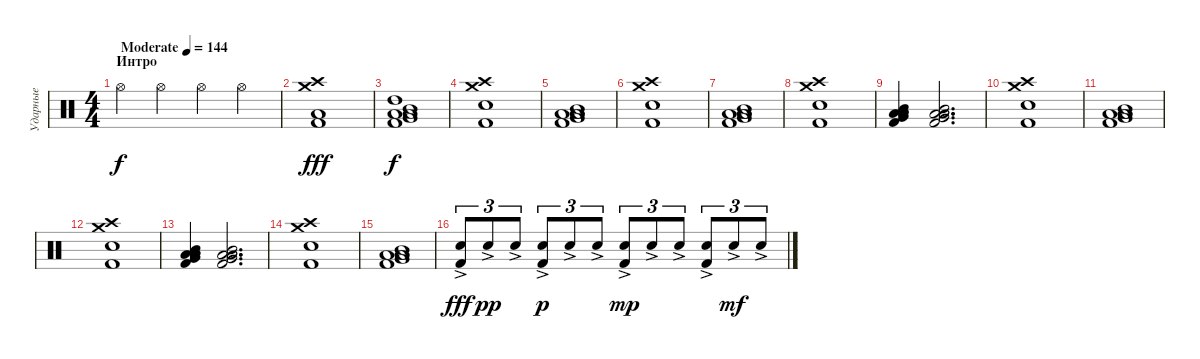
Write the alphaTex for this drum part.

\track ("Ударные" "Ударные") {instrument percussion}
\staff {score}
\articulation defaults
\ts (4 4)
\section ("" "Интро")
\tempo (144 "Moderate")
\clef neutral
\ks c "Hi-Hat (open)".4{dy f} "Hi-Hat (open)".4 "Hi-Hat (open)".4 "Hi-Hat (open)".4
|
("Crash high (hit)" "Kick (hit) 2" "Low Floor Tom (hit)" "Crash medium (hit)").1{dy fff volume 10} |
("Low Floor Tom (hit)" "Very Low Tom (hit)" "Low Tom (hit)" "Kick (hit) 2" "Mid Tom (hit)" "High Tom (hit)").1{dy f} |
("Crash high (hit)" "Crash medium (hit)" "Snare (hit) 2" "Kick (hit) 2").1 |
("Low Floor Tom (hit)" "Very Low Tom (hit)" "Low Tom (hit)" "Kick (hit) 2" "Low Tom (hit)" "Mid Tom (hit)").1 |
("Crash high (hit)" "Crash medium (hit)" "Snare (hit) 2" "Kick (hit) 2").1 |
("Low Floor Tom (hit)" "Very Low Tom (hit)" "Low Tom (hit)" "Kick (hit) 2" "Low Tom (hit)" "Mid Tom (hit)").1 |
("Crash high (hit)" "Crash medium (hit)" "Snare (hit) 2" "Kick (hit) 2").1 |
("Low Floor Tom (hit)" "Very Low Tom (hit)" "Low Tom (hit)" "Kick (hit) 2" "Low Tom (hit)" "Mid Tom (hit)").4 ("Low Floor Tom (hit)" "Very Low Tom (hit)" "Low Tom (hit)" "Kick (hit) 2" "Low Tom (hit)" "Mid Tom (hit)").2{d} |
("Crash high (hit)" "Crash medium (hit)" "Snare (hit) 2" "Kick (hit) 2").1 |
("Low Floor Tom (hit)" "Very Low Tom (hit)" "Low Tom (hit)" "Kick (hit) 2" "Low Tom (hit)" "Mid Tom (hit)").1 |
("Crash high (hit)" "Crash medium (hit)" "Snare (hit) 2" "Kick (hit) 2").1 |
("Low Floor Tom (hit)" "Very Low Tom (hit)" "Low Tom (hit)" "Kick (hit) 2" "Low Tom (hit)" "Mid Tom (hit)").4 ("Low Floor Tom (hit)" "Very Low Tom (hit)" "Low Tom (hit)" "Kick (hit) 2" "Low Tom (hit)" "Mid Tom (hit)").2{d} |
("Crash high (hit)" "Crash medium (hit)" "Snare (hit) 2" "Kick (hit) 2").1 |
("Low Floor Tom (hit)" "Very Low Tom (hit)" "Low Tom (hit)" "Kick (hit) 2" "Low Tom (hit)" "Mid Tom (hit)").1 |
("Snare (hit) 2"{ac} "Kick (hit) 2").8{tu (3 2) dy fff volume 16} "Snare (hit) 2"{ac}.8{tu (3 2) dy pp} "Snare (hit) 2"{ac}.8{tu (3 2)} ("Snare (hit) 2"{ac} "Kick (hit) 2").8{tu (3 2) dy p} "Snare (hit) 2"{ac}.8{tu (3 2)} "Snare (hit) 2"{ac}.8{tu (3 2)} ("Snare (hit) 2"{ac} "Kick (hit) 2").8{tu (3 2) dy mp} "Snare (hit) 2"{ac}.8{tu (3 2)} "Snare (hit) 2"{ac}.8{tu (3 2)} ("Snare (hit) 2"{ac} "Kick (hit) 2").8{tu (3 2)} "Snare (hit) 2"{ac}.8{tu (3 2) dy mf} "Snare (hit) 2"{ac}.8{tu (3 2)}
